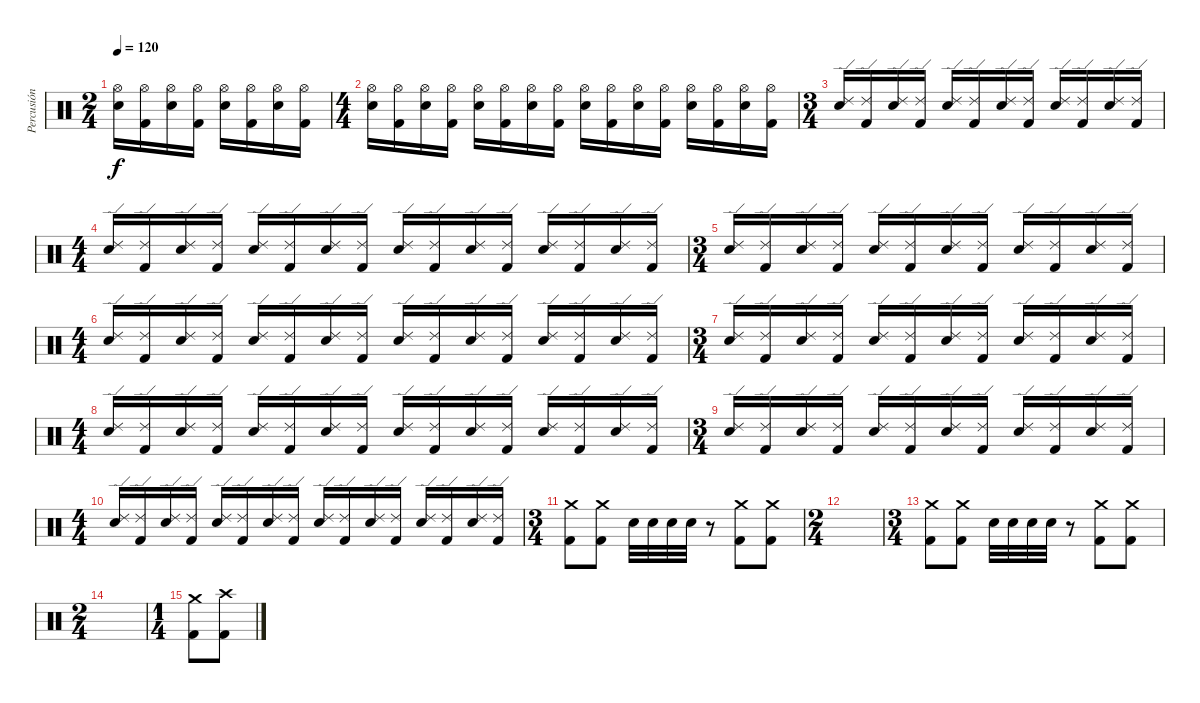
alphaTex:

\track ("Percusión" "Percusión") {instrument percussion}
\staff {score}
\articulation defaults
\ts (2 4)
\tempo 120
\clef neutral
\ks c
("Hi-Hat (open)" "Snare (hit) 2").16{dy f} ("Hi-Hat (open)" "Kick (hit) 2").16 ("Hi-Hat (open)" "Snare (hit) 2").16 ("Hi-Hat (open)" "Kick (hit) 2").16 ("Hi-Hat (open)" "Snare (hit) 2").16 ("Hi-Hat (open)" "Kick (hit) 2").16 ("Hi-Hat (open)" "Snare (hit) 2").16 ("Hi-Hat (open)" "Kick (hit) 2").16 |
\ts (4 4)
("Snare (hit) 2" "Hi-Hat (open)").16 ("Kick (hit) 2" "Hi-Hat (open)").16 ("Snare (hit) 2" "Hi-Hat (open)").16 ("Kick (hit) 2" "Hi-Hat (open)").16 ("Snare (hit) 2" "Hi-Hat (open)").16 ("Kick (hit) 2" "Hi-Hat (open)").16 ("Snare (hit) 2" "Hi-Hat (open)").16 ("Kick (hit) 2" "Hi-Hat (open)").16 ("Snare (hit) 2" "Hi-Hat (open)").16 ("Kick (hit) 2" "Hi-Hat (open)").16 ("Snare (hit) 2" "Hi-Hat (open)").16 ("Kick (hit) 2" "Hi-Hat (open)").16 ("Snare (hit) 2" "Hi-Hat (open)").16 ("Kick (hit) 2" "Hi-Hat (open)").16 ("Snare (hit) 2" "Hi-Hat (open)").16 ("Kick (hit) 2" "Hi-Hat (open)").16 |
\ts (3 4)
("Snare (hit) 2" "Ride (edge) 2").16 ("Kick (hit) 2" "Ride (edge) 2").16 ("Snare (hit) 2" "Ride (edge) 2").16 ("Kick (hit) 2" "Ride (edge) 2").16 ("Snare (hit) 2" "Ride (edge) 2").16 ("Kick (hit) 2" "Ride (edge) 2").16 ("Snare (hit) 2" "Ride (edge) 2").16 ("Kick (hit) 2" "Ride (edge) 2").16 ("Snare (hit) 2" "Ride (edge) 2").16 ("Kick (hit) 2" "Ride (edge) 2").16 ("Snare (hit) 2" "Ride (edge) 2").16 ("Kick (hit) 2" "Ride (edge) 2").16 |
\ts (4 4)
("Snare (hit) 2" "Ride (edge) 2").16 ("Kick (hit) 2" "Ride (edge) 2").16 ("Snare (hit) 2" "Ride (edge) 2").16 ("Kick (hit) 2" "Ride (edge) 2").16 ("Snare (hit) 2" "Ride (edge) 2").16 ("Kick (hit) 2" "Ride (edge) 2").16 ("Snare (hit) 2" "Ride (edge) 2").16 ("Kick (hit) 2" "Ride (edge) 2").16 ("Snare (hit) 2" "Ride (edge) 2").16 ("Kick (hit) 2" "Ride (edge) 2").16 ("Snare (hit) 2" "Ride (edge) 2").16 ("Kick (hit) 2" "Ride (edge) 2").16 ("Snare (hit) 2" "Ride (edge) 2").16 ("Kick (hit) 2" "Ride (edge) 2").16 ("Snare (hit) 2" "Ride (edge) 2").16 ("Kick (hit) 2" "Ride (edge) 2").16 |
\ts (3 4)
("Snare (hit) 2" "Ride (edge) 2").16 ("Kick (hit) 2" "Ride (edge) 2").16 ("Snare (hit) 2" "Ride (edge) 2").16 ("Kick (hit) 2" "Ride (edge) 2").16 ("Snare (hit) 2" "Ride (edge) 2").16 ("Kick (hit) 2" "Ride (edge) 2").16 ("Snare (hit) 2" "Ride (edge) 2").16 ("Kick (hit) 2" "Ride (edge) 2").16 ("Snare (hit) 2" "Ride (edge) 2").16 ("Kick (hit) 2" "Ride (edge) 2").16 ("Snare (hit) 2" "Ride (edge) 2").16 ("Kick (hit) 2" "Ride (edge) 2").16 |
\ts (4 4)
("Snare (hit) 2" "Ride (edge) 2").16 ("Kick (hit) 2" "Ride (edge) 2").16 ("Snare (hit) 2" "Ride (edge) 2").16 ("Kick (hit) 2" "Ride (edge) 2").16 ("Snare (hit) 2" "Ride (edge) 2").16 ("Kick (hit) 2" "Ride (edge) 2").16 ("Snare (hit) 2" "Ride (edge) 2").16 ("Kick (hit) 2" "Ride (edge) 2").16 ("Snare (hit) 2" "Ride (edge) 2").16 ("Kick (hit) 2" "Ride (edge) 2").16 ("Snare (hit) 2" "Ride (edge) 2").16 ("Kick (hit) 2" "Ride (edge) 2").16 ("Snare (hit) 2" "Ride (edge) 2").16 ("Kick (hit) 2" "Ride (edge) 2").16 ("Snare (hit) 2" "Ride (edge) 2").16 ("Kick (hit) 2" "Ride (edge) 2").16 |
\ts (3 4)
("Snare (hit) 2" "Ride (edge) 2").16 ("Kick (hit) 2" "Ride (edge) 2").16 ("Snare (hit) 2" "Ride (edge) 2").16 ("Kick (hit) 2" "Ride (edge) 2").16 ("Snare (hit) 2" "Ride (edge) 2").16 ("Kick (hit) 2" "Ride (edge) 2").16 ("Snare (hit) 2" "Ride (edge) 2").16 ("Kick (hit) 2" "Ride (edge) 2").16 ("Snare (hit) 2" "Ride (edge) 2").16 ("Kick (hit) 2" "Ride (edge) 2").16 ("Snare (hit) 2" "Ride (edge) 2").16 ("Kick (hit) 2" "Ride (edge) 2").16 |
\ts (4 4)
("Snare (hit) 2" "Ride (edge) 2").16 ("Kick (hit) 2" "Ride (edge) 2").16 ("Snare (hit) 2" "Ride (edge) 2").16 ("Kick (hit) 2" "Ride (edge) 2").16 ("Snare (hit) 2" "Ride (edge) 2").16 ("Kick (hit) 2" "Ride (edge) 2").16 ("Snare (hit) 2" "Ride (edge) 2").16 ("Kick (hit) 2" "Ride (edge) 2").16 ("Snare (hit) 2" "Ride (edge) 2").16 ("Kick (hit) 2" "Ride (edge) 2").16 ("Snare (hit) 2" "Ride (edge) 2").16 ("Kick (hit) 2" "Ride (edge) 2").16 ("Snare (hit) 2" "Ride (edge) 2").16 ("Kick (hit) 2" "Ride (edge) 2").16 ("Snare (hit) 2" "Ride (edge) 2").16 ("Kick (hit) 2" "Ride (edge) 2").16 |
\ts (3 4)
("Snare (hit) 2" "Ride (edge) 2").16 ("Kick (hit) 2" "Ride (edge) 2").16 ("Snare (hit) 2" "Ride (edge) 2").16 ("Kick (hit) 2" "Ride (edge) 2").16 ("Snare (hit) 2" "Ride (edge) 2").16 ("Kick (hit) 2" "Ride (edge) 2").16 ("Snare (hit) 2" "Ride (edge) 2").16 ("Kick (hit) 2" "Ride (edge) 2").16 ("Snare (hit) 2" "Ride (edge) 2").16 ("Kick (hit) 2" "Ride (edge) 2").16 ("Snare (hit) 2" "Ride (edge) 2").16 ("Kick (hit) 2" "Ride (edge) 2").16 |
\ts (4 4)
("Snare (hit) 2" "Ride (edge) 2").16 ("Kick (hit) 2" "Ride (edge) 2").16 ("Snare (hit) 2" "Ride (edge) 2").16 ("Kick (hit) 2" "Ride (edge) 2").16 ("Snare (hit) 2" "Ride (edge) 2").16 ("Kick (hit) 2" "Ride (edge) 2").16 ("Snare (hit) 2" "Ride (edge) 2").16 ("Kick (hit) 2" "Ride (edge) 2").16 ("Snare (hit) 2" "Ride (edge) 2").16 ("Kick (hit) 2" "Ride (edge) 2").16 ("Snare (hit) 2" "Ride (edge) 2").16 ("Kick (hit) 2" "Ride (edge) 2").16 ("Snare (hit) 2" "Ride (edge) 2").16 ("Kick (hit) 2" "Ride (edge) 2").16 ("Snare (hit) 2" "Ride (edge) 2").16 ("Kick (hit) 2" "Ride (edge) 2").16 |
\ts (3 4)
("Kick (hit) 2" "Crash medium (hit)").8 ("Kick (hit) 2" "Crash medium (hit)").8 "Snare (hit) 2".32 "Snare (hit) 2".32 "Snare (hit) 2".32 "Snare (hit) 2".32 r.8 ("Kick (hit) 2" "Crash medium (hit)").8 ("Kick (hit) 2" "Crash medium (hit)").8 |
\ts (2 4)
|
\ts (3 4)
("Kick (hit) 2" "Crash medium (hit)").8 ("Kick (hit) 2" "Crash medium (hit)").8 "Snare (hit) 2".32 "Snare (hit) 2".32 "Snare (hit) 2".32 "Snare (hit) 2".32 r.8 ("Kick (hit) 2" "Crash medium (hit)").8 ("Kick (hit) 2" "Crash medium (hit)").8 |
\ts (2 4)
|
\ts (1 4)
("Kick (hit) 2" "Crash medium (hit)").8 ("Kick (hit) 2" "Crash high (hit)").8
